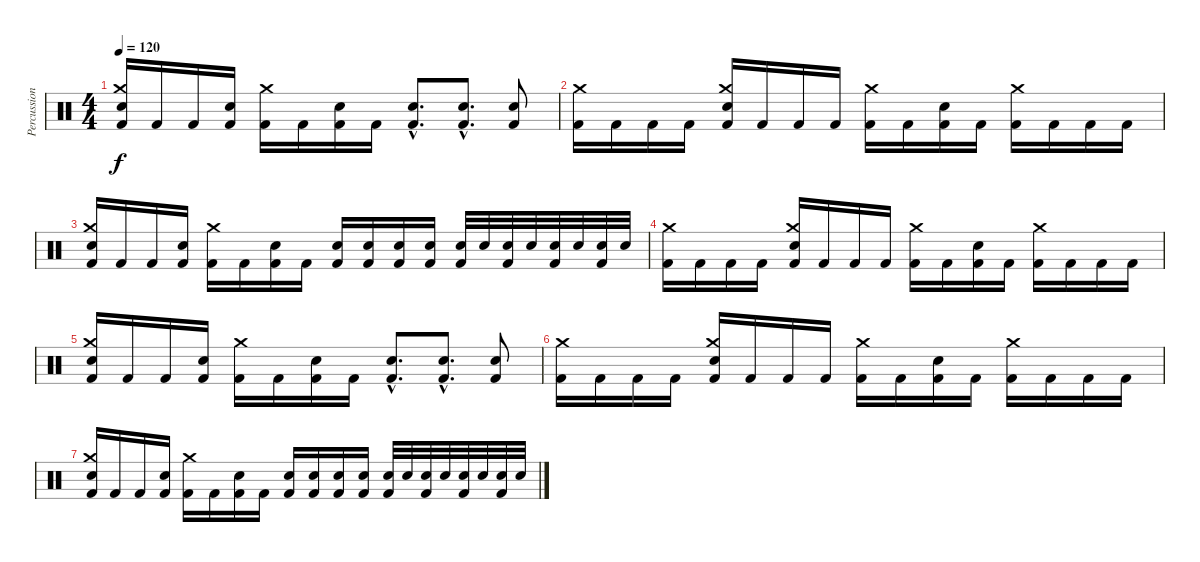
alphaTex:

\track ("Percussions" "Percussion") {instrument percussion}
\staff {score}
\articulation defaults
\ts (4 4)
\tempo 120
\clef neutral
\ks c
("Electric Snare (hit)" "Crash medium (hit)" "Kick (hit) 2").16{dy f} "Kick (hit) 2".16 "Kick (hit) 2".16 ("Electric Snare (hit)" "Kick (hit) 2").16 ("Crash medium (hit)" "Kick (hit) 2").16 "Kick (hit) 2".16 ("Electric Snare (hit)" "Kick (hit) 2").16 "Kick (hit) 2".16 ("Electric Snare (hit)"{hac} "Kick (hit) 2"{hac}).8{d} ("Electric Snare (hit)"{hac} "Kick (hit) 2"{hac}).8{d} ("Electric Snare (hit)" "Kick (hit) 2").8 |
("Crash medium (hit)" "Kick (hit) 2").16 "Kick (hit) 2".16 "Kick (hit) 2".16 "Kick (hit) 2".16 ("Electric Snare (hit)" "Crash medium (hit)" "Kick (hit) 2").16 "Kick (hit) 2".16 "Kick (hit) 2".16 "Kick (hit) 2".16 ("Crash medium (hit)" "Kick (hit) 2").16 "Kick (hit) 2".16 ("Electric Snare (hit)" "Kick (hit) 2").16 "Kick (hit) 2".16 ("Crash medium (hit)" "Kick (hit) 2").16 "Kick (hit) 2".16 "Kick (hit) 2".16 "Kick (hit) 2".16 |
("Electric Snare (hit)" "Crash medium (hit)" "Kick (hit) 2").16 "Kick (hit) 2".16 "Kick (hit) 2".16 ("Electric Snare (hit)" "Kick (hit) 2").16 ("Crash medium (hit)" "Kick (hit) 2").16 "Kick (hit) 2".16 ("Electric Snare (hit)" "Kick (hit) 2").16 "Kick (hit) 2".16 ("Electric Snare (hit)" "Kick (hit) 2").16 ("Electric Snare (hit)" "Kick (hit) 2").16 ("Electric Snare (hit)" "Kick (hit) 2").16 ("Electric Snare (hit)" "Kick (hit) 2").16 ("Electric Snare (hit)" "Kick (hit) 2").32 "Electric Snare (hit)".32 ("Electric Snare (hit)" "Kick (hit) 2").32 "Electric Snare (hit)".32 ("Electric Snare (hit)" "Kick (hit) 2").32 "Electric Snare (hit)".32 ("Electric Snare (hit)" "Kick (hit) 2").32 "Electric Snare (hit)".32 |
("Crash medium (hit)" "Kick (hit) 2").16 "Kick (hit) 2".16 "Kick (hit) 2".16 "Kick (hit) 2".16 ("Electric Snare (hit)" "Crash medium (hit)" "Kick (hit) 2").16 "Kick (hit) 2".16 "Kick (hit) 2".16 "Kick (hit) 2".16 ("Crash medium (hit)" "Kick (hit) 2").16 "Kick (hit) 2".16 ("Electric Snare (hit)" "Kick (hit) 2").16 "Kick (hit) 2".16 ("Crash medium (hit)" "Kick (hit) 2").16 "Kick (hit) 2".16 "Kick (hit) 2".16 "Kick (hit) 2".16 |
("Electric Snare (hit)" "Crash medium (hit)" "Kick (hit) 2").16 "Kick (hit) 2".16 "Kick (hit) 2".16 ("Electric Snare (hit)" "Kick (hit) 2").16 ("Crash medium (hit)" "Kick (hit) 2").16 "Kick (hit) 2".16 ("Electric Snare (hit)" "Kick (hit) 2").16 "Kick (hit) 2".16 ("Electric Snare (hit)"{hac} "Kick (hit) 2"{hac}).8{d} ("Electric Snare (hit)"{hac} "Kick (hit) 2"{hac}).8{d} ("Electric Snare (hit)" "Kick (hit) 2").8 |
("Crash medium (hit)" "Kick (hit) 2").16 "Kick (hit) 2".16 "Kick (hit) 2".16 "Kick (hit) 2".16 ("Electric Snare (hit)" "Crash medium (hit)" "Kick (hit) 2").16 "Kick (hit) 2".16 "Kick (hit) 2".16 "Kick (hit) 2".16 ("Crash medium (hit)" "Kick (hit) 2").16 "Kick (hit) 2".16 ("Electric Snare (hit)" "Kick (hit) 2").16 "Kick (hit) 2".16 ("Crash medium (hit)" "Kick (hit) 2").16 "Kick (hit) 2".16 "Kick (hit) 2".16 "Kick (hit) 2".16 |
("Electric Snare (hit)" "Crash medium (hit)" "Kick (hit) 2").16 "Kick (hit) 2".16 "Kick (hit) 2".16 ("Electric Snare (hit)" "Kick (hit) 2").16 ("Crash medium (hit)" "Kick (hit) 2").16 "Kick (hit) 2".16 ("Electric Snare (hit)" "Kick (hit) 2").16 "Kick (hit) 2".16 ("Electric Snare (hit)" "Kick (hit) 2").16 ("Electric Snare (hit)" "Kick (hit) 2").16 ("Electric Snare (hit)" "Kick (hit) 2").16 ("Electric Snare (hit)" "Kick (hit) 2").16 ("Electric Snare (hit)" "Kick (hit) 2").32 "Electric Snare (hit)".32 ("Electric Snare (hit)" "Kick (hit) 2").32 "Electric Snare (hit)".32 ("Electric Snare (hit)" "Kick (hit) 2").32 "Electric Snare (hit)".32 ("Electric Snare (hit)" "Kick (hit) 2").32 "Electric Snare (hit)".32
